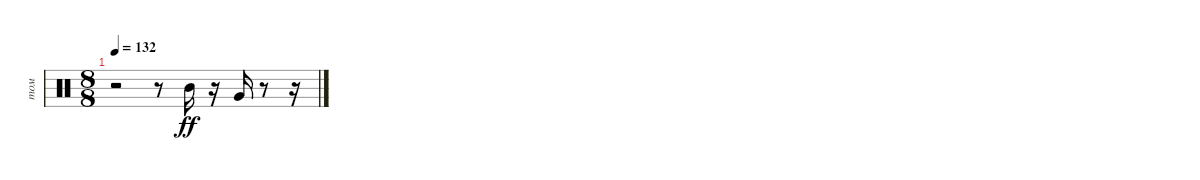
\track ("том" "том") {instrument percussion}
\staff {score}
\articulation defaults
\ts (8 8)
\tempo 132
\clef neutral
\ks c
r.2{dy ff} r.8 "Mid Tom (hit)".16 r.16 "Very Low Tom (hit)".16 r.8 r.16
